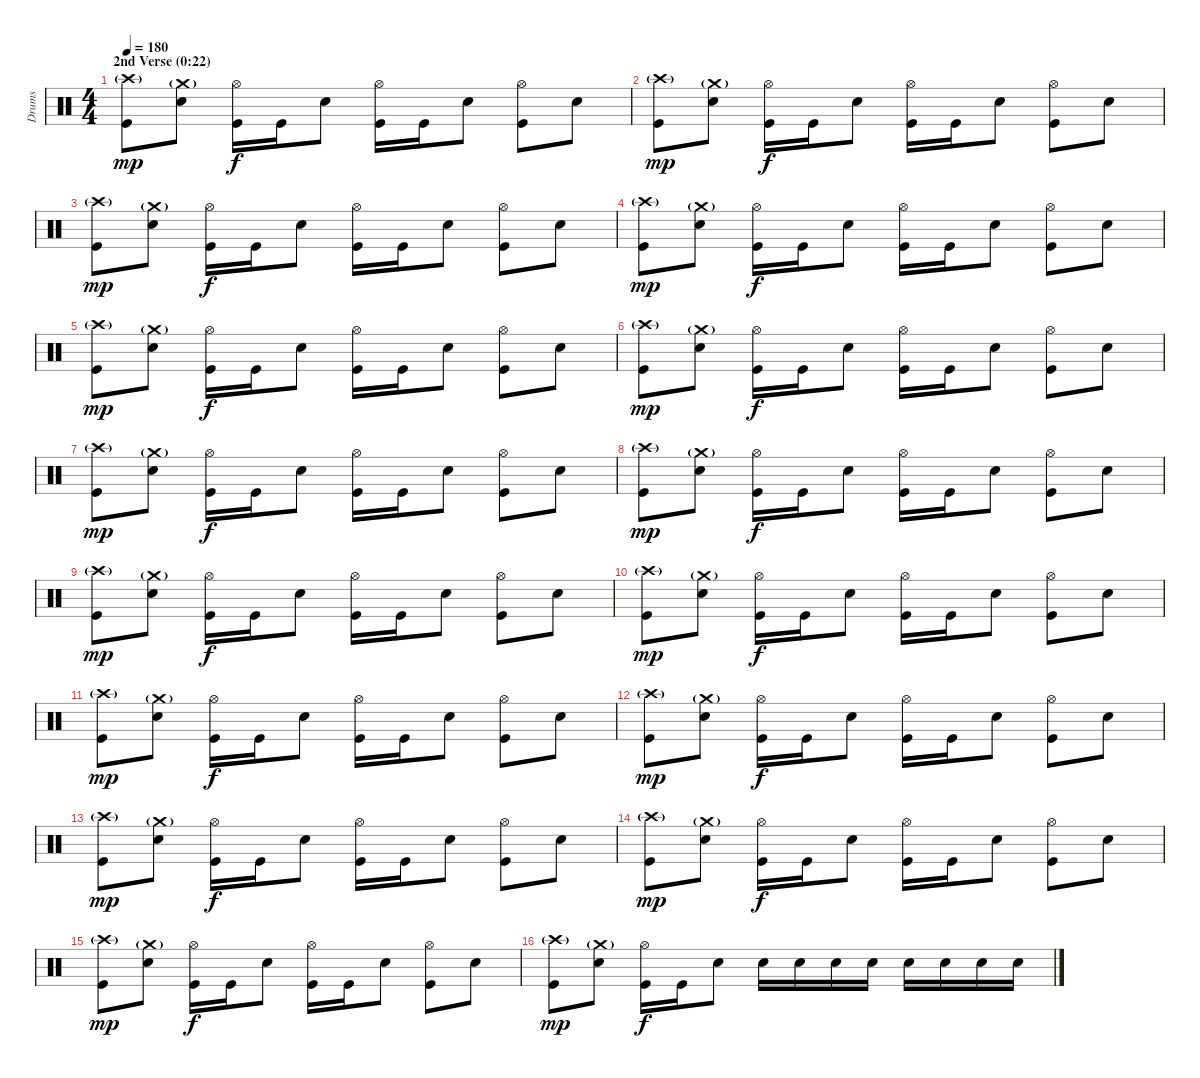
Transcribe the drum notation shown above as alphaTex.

\track ("Drums" "Drums") {instrument percussion}
\staff {score}
\articulation defaults
\ts (4 4)
\section ("" "2nd Verse (0:22)")
\tempo 180
\clef neutral
\ks c
("Crash high (hit)"{g} "Kick (hit)").8{dy mp} ("Crash medium (hit)"{g} "Snare (hit) 2").8 ("Hi-Hat (open)" "Kick (hit)").16{dy f} "Kick (hit)".16 "Snare (hit) 2".8 ("Hi-Hat (open)" "Kick (hit)").16 "Kick (hit)".16 "Snare (hit) 2".8 ("Hi-Hat (open)" "Kick (hit)").8 "Snare (hit) 2".8 |
("Crash high (hit)"{g} "Kick (hit)").8{dy mp} ("Crash medium (hit)"{g} "Snare (hit) 2").8 ("Hi-Hat (open)" "Kick (hit)").16{dy f} "Kick (hit)".16 "Snare (hit) 2".8 ("Hi-Hat (open)" "Kick (hit)").16 "Kick (hit)".16 "Snare (hit) 2".8 ("Hi-Hat (open)" "Kick (hit)").8 "Snare (hit) 2".8 |
("Crash high (hit)"{g} "Kick (hit)").8{dy mp} ("Crash medium (hit)"{g} "Snare (hit) 2").8 ("Hi-Hat (open)" "Kick (hit)").16{dy f} "Kick (hit)".16 "Snare (hit) 2".8 ("Hi-Hat (open)" "Kick (hit)").16 "Kick (hit)".16 "Snare (hit) 2".8 ("Hi-Hat (open)" "Kick (hit)").8 "Snare (hit) 2".8 |
("Crash high (hit)"{g} "Kick (hit)").8{dy mp} ("Crash medium (hit)"{g} "Snare (hit) 2").8 ("Hi-Hat (open)" "Kick (hit)").16{dy f} "Kick (hit)".16 "Snare (hit) 2".8 ("Hi-Hat (open)" "Kick (hit)").16 "Kick (hit)".16 "Snare (hit) 2".8 ("Hi-Hat (open)" "Kick (hit)").8 "Snare (hit) 2".8 |
("Crash high (hit)"{g} "Kick (hit)").8{dy mp} ("Crash medium (hit)"{g} "Snare (hit) 2").8 ("Hi-Hat (open)" "Kick (hit)").16{dy f} "Kick (hit)".16 "Snare (hit) 2".8 ("Hi-Hat (open)" "Kick (hit)").16 "Kick (hit)".16 "Snare (hit) 2".8 ("Hi-Hat (open)" "Kick (hit)").8 "Snare (hit) 2".8 |
("Crash high (hit)"{g} "Kick (hit)").8{dy mp} ("Crash medium (hit)"{g} "Snare (hit) 2").8 ("Hi-Hat (open)" "Kick (hit)").16{dy f} "Kick (hit)".16 "Snare (hit) 2".8 ("Hi-Hat (open)" "Kick (hit)").16 "Kick (hit)".16 "Snare (hit) 2".8 ("Hi-Hat (open)" "Kick (hit)").8 "Snare (hit) 2".8 |
("Crash high (hit)"{g} "Kick (hit)").8{dy mp} ("Crash medium (hit)"{g} "Snare (hit) 2").8 ("Hi-Hat (open)" "Kick (hit)").16{dy f} "Kick (hit)".16 "Snare (hit) 2".8 ("Hi-Hat (open)" "Kick (hit)").16 "Kick (hit)".16 "Snare (hit) 2".8 ("Hi-Hat (open)" "Kick (hit)").8 "Snare (hit) 2".8 |
("Crash high (hit)"{g} "Kick (hit)").8{dy mp} ("Crash medium (hit)"{g} "Snare (hit) 2").8 ("Hi-Hat (open)" "Kick (hit)").16{dy f} "Kick (hit)".16 "Snare (hit) 2".8 ("Hi-Hat (open)" "Kick (hit)").16 "Kick (hit)".16 "Snare (hit) 2".8 ("Hi-Hat (open)" "Kick (hit)").8 "Snare (hit) 2".8 |
("Crash high (hit)"{g} "Kick (hit)").8{dy mp} ("Crash medium (hit)"{g} "Snare (hit) 2").8 ("Hi-Hat (open)" "Kick (hit)").16{dy f} "Kick (hit)".16 "Snare (hit) 2".8 ("Hi-Hat (open)" "Kick (hit)").16 "Kick (hit)".16 "Snare (hit) 2".8 ("Hi-Hat (open)" "Kick (hit)").8 "Snare (hit) 2".8 |
("Crash high (hit)"{g} "Kick (hit)").8{dy mp} ("Crash medium (hit)"{g} "Snare (hit) 2").8 ("Hi-Hat (open)" "Kick (hit)").16{dy f} "Kick (hit)".16 "Snare (hit) 2".8 ("Hi-Hat (open)" "Kick (hit)").16 "Kick (hit)".16 "Snare (hit) 2".8 ("Hi-Hat (open)" "Kick (hit)").8 "Snare (hit) 2".8 |
("Crash high (hit)"{g} "Kick (hit)").8{dy mp} ("Crash medium (hit)"{g} "Snare (hit) 2").8 ("Hi-Hat (open)" "Kick (hit)").16{dy f} "Kick (hit)".16 "Snare (hit) 2".8 ("Hi-Hat (open)" "Kick (hit)").16 "Kick (hit)".16 "Snare (hit) 2".8 ("Hi-Hat (open)" "Kick (hit)").8 "Snare (hit) 2".8 |
("Crash high (hit)"{g} "Kick (hit)").8{dy mp} ("Crash medium (hit)"{g} "Snare (hit) 2").8 ("Hi-Hat (open)" "Kick (hit)").16{dy f} "Kick (hit)".16 "Snare (hit) 2".8 ("Hi-Hat (open)" "Kick (hit)").16 "Kick (hit)".16 "Snare (hit) 2".8 ("Hi-Hat (open)" "Kick (hit)").8 "Snare (hit) 2".8 |
("Crash high (hit)"{g} "Kick (hit)").8{dy mp} ("Crash medium (hit)"{g} "Snare (hit) 2").8 ("Hi-Hat (open)" "Kick (hit)").16{dy f} "Kick (hit)".16 "Snare (hit) 2".8 ("Hi-Hat (open)" "Kick (hit)").16 "Kick (hit)".16 "Snare (hit) 2".8 ("Hi-Hat (open)" "Kick (hit)").8 "Snare (hit) 2".8 |
("Crash high (hit)"{g} "Kick (hit)").8{dy mp} ("Crash medium (hit)"{g} "Snare (hit) 2").8 ("Hi-Hat (open)" "Kick (hit)").16{dy f} "Kick (hit)".16 "Snare (hit) 2".8 ("Hi-Hat (open)" "Kick (hit)").16 "Kick (hit)".16 "Snare (hit) 2".8 ("Hi-Hat (open)" "Kick (hit)").8 "Snare (hit) 2".8 |
("Crash high (hit)"{g} "Kick (hit)").8{dy mp} ("Crash medium (hit)"{g} "Snare (hit) 2").8 ("Hi-Hat (open)" "Kick (hit)").16{dy f} "Kick (hit)".16 "Snare (hit) 2".8 ("Hi-Hat (open)" "Kick (hit)").16 "Kick (hit)".16 "Snare (hit) 2".8 ("Hi-Hat (open)" "Kick (hit)").8 "Snare (hit) 2".8 |
("Crash high (hit)"{g} "Kick (hit)").8{dy mp} ("Crash medium (hit)"{g} "Snare (hit) 2").8 ("Hi-Hat (open)" "Kick (hit)").16{dy f} "Kick (hit)".16 "Snare (hit) 2".8 "Snare (hit) 2".16 "Snare (hit) 2".16 "Snare (hit) 2".16 "Snare (hit) 2".16 "Snare (hit) 2".16 "Snare (hit) 2".16 "Snare (hit) 2".16 "Snare (hit) 2".16
